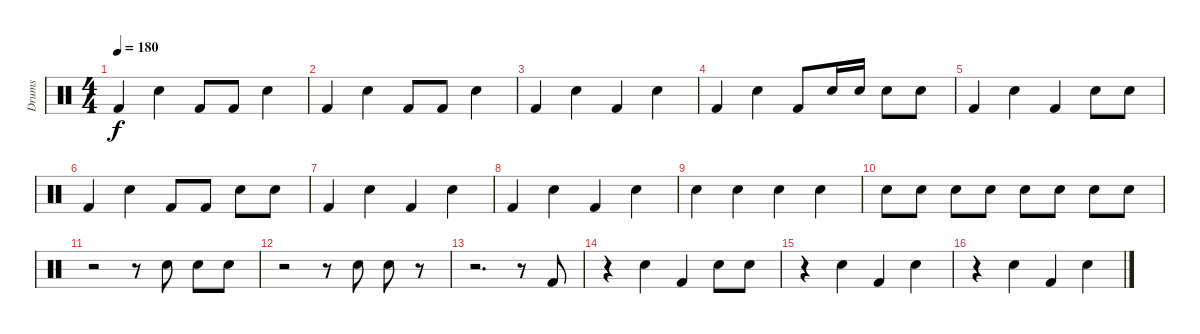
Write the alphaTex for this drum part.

\track ("Drums" "Drums") {instrument percussion}
\staff {score}
\articulation defaults
\ts (4 4)
\tempo 180
\clef neutral
\ks c "Kick (hit) 2".4{dy f} "Snare (hit) 2".4 "Kick (hit) 2".8 "Kick (hit) 2".8 "Snare (hit) 2".4
|
"Kick (hit) 2".4 "Snare (hit) 2".4 "Kick (hit) 2".8 "Kick (hit) 2".8 "Snare (hit) 2".4 |
"Kick (hit) 2".4 "Snare (hit) 2".4 "Kick (hit) 2".4 "Snare (hit) 2".4 |
"Kick (hit) 2".4 "Snare (hit) 2".4 "Kick (hit) 2".8 "Snare (hit) 2".16 "Snare (hit) 2".16 "Snare (hit) 2".8 "Snare (hit) 2".8 |
"Kick (hit) 2".4 "Snare (hit) 2".4 "Kick (hit) 2".4 "Snare (hit) 2".8 "Snare (hit) 2".8 |
"Kick (hit) 2".4 "Snare (hit) 2".4 "Kick (hit) 2".8 "Kick (hit) 2".8 "Snare (hit) 2".8 "Snare (hit) 2".8 |
"Kick (hit) 2".4 "Snare (hit) 2".4 "Kick (hit) 2".4 "Snare (hit) 2".4 |
"Kick (hit) 2".4 "Snare (hit) 2".4 "Kick (hit) 2".4 "Snare (hit) 2".4 |
"Snare (hit) 2".4 "Snare (hit) 2".4 "Snare (hit) 2".4 "Snare (hit) 2".4 |
"Snare (hit) 2".8 "Snare (hit) 2".8 "Snare (hit) 2".8 "Snare (hit) 2".8 "Snare (hit) 2".8 "Snare (hit) 2".8 "Snare (hit) 2".8 "Snare (hit) 2".8 |
r.2 r.8 "Snare (hit) 2".8 "Snare (hit) 2".8 "Snare (hit) 2".8 |
r.2 r.8 "Snare (hit) 2".8 "Snare (hit) 2".8 r.8 |
r.2{d} r.8 "Kick (hit) 2".8 |
r.4 "Snare (hit) 2".4 "Kick (hit) 2".4 "Snare (hit) 2".8 "Snare (hit) 2".8 |
r.4 "Snare (hit) 2".4 "Kick (hit) 2".4 "Snare (hit) 2".4 |
r.4 "Snare (hit) 2".4 "Kick (hit) 2".4 "Snare (hit) 2".4
